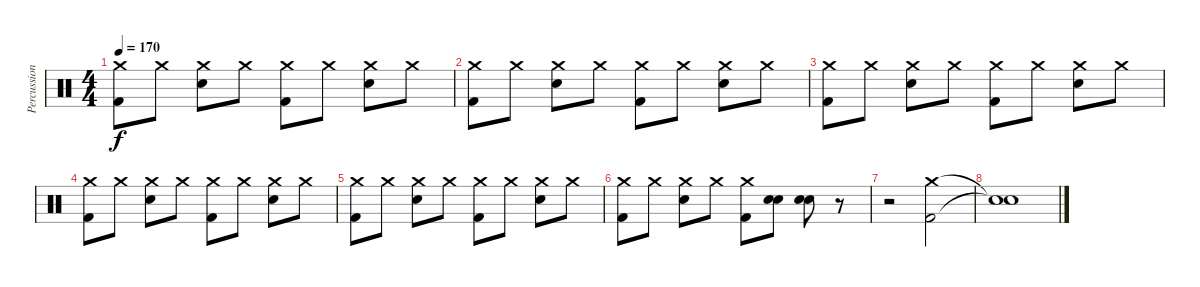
\track ("Percussion" "Percussion") {instrument percussion}
\staff {score}
\articulation defaults
\ts (4 4)
\tempo 170
\clef neutral
\ks c
("Crash medium (hit)" "Kick (hit) 2").8{dy f} "Crash medium (hit)".8 ("Crash medium (hit)" "Snare (hit) 2").8 "Crash medium (hit)".8 ("Crash medium (hit)" "Kick (hit) 2").8 "Crash medium (hit)".8 ("Crash medium (hit)" "Snare (hit) 2").8 "Crash medium (hit)".8 |
("Crash medium (hit)" "Kick (hit) 2").8 "Crash medium (hit)".8 ("Crash medium (hit)" "Snare (hit) 2").8 "Crash medium (hit)".8 ("Crash medium (hit)" "Kick (hit) 2").8 "Crash medium (hit)".8 ("Crash medium (hit)" "Snare (hit) 2").8 "Crash medium (hit)".8 |
("Crash medium (hit)" "Kick (hit) 2").8 "Crash medium (hit)".8 ("Crash medium (hit)" "Snare (hit) 2").8 "Crash medium (hit)".8 ("Crash medium (hit)" "Kick (hit) 2").8 "Crash medium (hit)".8 ("Crash medium (hit)" "Snare (hit) 2").8 "Crash medium (hit)".8 |
("Crash medium (hit)" "Kick (hit) 2").8 "Crash medium (hit)".8 ("Crash medium (hit)" "Snare (hit) 2").8 "Crash medium (hit)".8 ("Crash medium (hit)" "Kick (hit) 2").8 "Crash medium (hit)".8 ("Crash medium (hit)" "Snare (hit) 2").8 "Crash medium (hit)".8 |
("Crash medium (hit)" "Kick (hit) 2").8 "Crash medium (hit)".8 ("Crash medium (hit)" "Snare (hit) 2").8 "Crash medium (hit)".8 ("Crash medium (hit)" "Kick (hit) 2").8 "Crash medium (hit)".8 ("Crash medium (hit)" "Snare (hit) 2").8 "Crash medium (hit)".8 |
("Crash medium (hit)" "Kick (hit) 2").8 "Crash medium (hit)".8 ("Crash medium (hit)" "Snare (hit) 2").8 "Crash medium (hit)".8 ("Crash medium (hit)" "Kick (hit) 2").8 ("Snare (hit) 2" "Snare (hit) 2").8{bd 240} ("Snare (hit) 2" "Snare (hit) 2").8{bu 240} r.8 |
r.2 ("Crash medium (hit)" "Kick (hit) 2").2 |
("Snare (hit)"{t} "Snare (hit)"{t}).1
